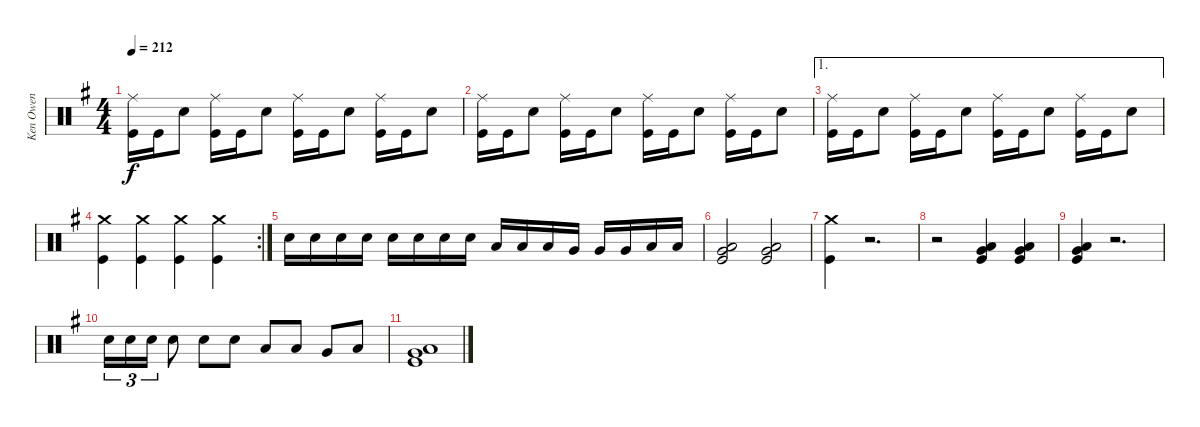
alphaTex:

\track ("Ken Owen" "Ken Owen") {instrument percussion}
\staff {score}
\articulation defaults
\ts (4 4)
\tempo 212
\clef neutral
\ks g
("Ride (middle)" "Kick (hit)").16{dy f} "Kick (hit)".16 "Snare (hit) 2".8 ("Ride (middle)" "Kick (hit)").16 "Kick (hit)".16 "Snare (hit) 2".8 ("Ride (middle)" "Kick (hit)").16 "Kick (hit)".16 "Snare (hit) 2".8 ("Ride (middle)" "Kick (hit)").16 "Kick (hit)".16 "Snare (hit) 2".8 |
("Ride (middle)" "Kick (hit)").16 "Kick (hit)".16 "Snare (hit) 2".8 ("Ride (middle)" "Kick (hit)").16 "Kick (hit)".16 "Snare (hit) 2".8 ("Ride (middle)" "Kick (hit)").16 "Kick (hit)".16 "Snare (hit) 2".8 ("Ride (middle)" "Kick (hit)").16 "Kick (hit)".16 "Snare (hit) 2".8 |
\ae 1
("Ride (middle)" "Kick (hit)").16 "Kick (hit)".16 "Snare (hit) 2".8 ("Ride (middle)" "Kick (hit)").16 "Kick (hit)".16 "Snare (hit) 2".8 ("Ride (middle)" "Kick (hit)").16 "Kick (hit)".16 "Snare (hit) 2".8 ("Ride (middle)" "Kick (hit)").16 "Kick (hit)".16 "Snare (hit) 2".8 |
\rc 2
("Crash medium (hit)" "Kick (hit)").4 ("Crash medium (hit)" "Kick (hit)").4 ("Crash medium (hit)" "Kick (hit)").4 ("Crash medium (hit)" "Kick (hit)").4 |
"Snare (hit) 2".16 "Snare (hit) 2".16 "Snare (hit) 2".16 "Snare (hit) 2".16 "Snare (hit) 2".16 "Snare (hit) 2".16 "Snare (hit) 2".16 "Snare (hit) 2".16 "Low Tom (hit)".16 "Low Tom (hit)".16 "Low Tom (hit)".16 "Very Low Tom (hit)".16 "Very Low Tom (hit)".16 "Very Low Tom (hit)".16 "Low Floor Tom (hit)".16 "Low Floor Tom (hit)".16 |
("Low Tom (hit)" "Very Low Tom (hit)" "Kick (hit)").2 ("Low Tom (hit)" "Very Low Tom (hit)" "Kick (hit)").2 |
("Crash medium (hit)" "Kick (hit)").4 r.2{d} |
r.2 ("Low Tom (hit)" "Very Low Tom (hit)" "Kick (hit)").4 ("Low Tom (hit)" "Very Low Tom (hit)" "Kick (hit)").4 |
("Low Tom (hit)" "Very Low Tom (hit)" "Kick (hit)").4 r.2{d} |
"Snare (hit) 2".16{tu (3 2)} "Snare (hit) 2".16{tu (3 2)} "Snare (hit) 2".16{tu (3 2)} "Snare (hit) 2".8 "Snare (hit) 2".8 "Snare (hit) 2".8 "Low Tom (hit)".8 "Low Tom (hit)".8 "Very Low Tom (hit)".8 "Low Floor Tom (hit)".8 |
("Low Tom (hit)" "Very Low Tom (hit)" "Kick (hit)").1
